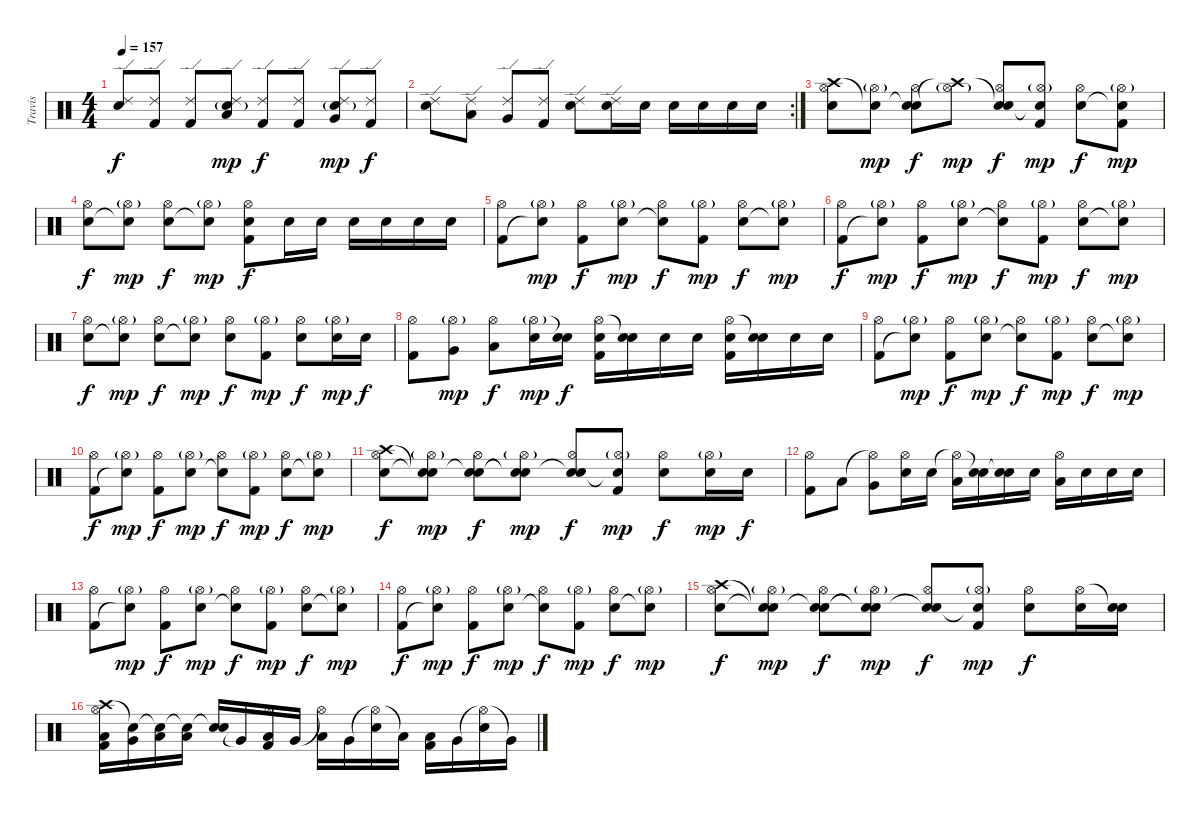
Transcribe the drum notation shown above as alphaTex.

\track ("Travis" "Travis") {instrument percussion}
\staff {score}
\articulation defaults
\ts (4 4)
\tempo 157
\clef neutral
\ks c
("Ride (edge) 2" "Electric Snare (hit)").8{dy f} ("Ride (edge) 2" "Kick (hit) 2").8 ("Ride (edge) 2" "Kick (hit) 2").8 ("Ride (edge) 2" "Electric Snare (hit)"{g} "Low Tom (hit)").8{dy mp} ("Ride (edge) 2" "Kick (hit) 2").8{dy f} ("Ride (edge) 2" "Kick (hit) 2").8 ("Ride (edge) 2" "Electric Snare (hit)"{g} "Very Low Tom (hit)").8{dy mp} ("Ride (edge) 2" "Kick (hit) 2").8{dy f} |
\rc 2
("Ride (edge) 2" "Electric Snare (hit)").8 ("Ride (edge) 2" "Low Tom (hit)").8 ("Ride (edge) 2" "Very Low Tom (hit)").8 ("Ride (edge) 2" "Kick (hit) 2").8 ("Ride (edge) 2" "Electric Snare (hit)").8 ("Ride (edge) 2" "Electric Snare (hit)").16 "Electric Snare (hit)".16 "Electric Snare (hit)".16 "Electric Snare (hit)".16 "Electric Snare (hit)".16 "Electric Snare (hit)".16 |
("Crash high (hit)" "Hi-Hat (open)" "Electric Snare (hit)").8 ("Snare (hit)"{t} "Hi-Hat (open)"{g}).8{dy mp} ("Snare (hit)"{t} "Hi-Hat (open)" "Electric Snare (hit)").8{dy f} ("Crash high (hit)"{t} "Hi-Hat (open)"{g}).8{dy mp} ("Snare (hit)"{t} "Hi-Hat (open)" "Electric Snare (hit)").8{dy f} ("Snare (hit)"{t} "Hi-Hat (open)"{g} "Kick (hit) 2").8{dy mp} ("Hi-Hat (open)" "Electric Snare (hit)").8{dy f} ("Hi-Hat (open)"{g} "Snare (hit)"{t} "Kick (hit) 2").8{dy mp} |
("Hi-Hat (open)" "Electric Snare (hit)").8{dy f} ("Hi-Hat (open)"{g} "Snare (hit)"{t}).8{dy mp} ("Hi-Hat (open)" "Electric Snare (hit)").8{dy f} ("Hi-Hat (open)"{g} "Snare (hit)"{t}).8{dy mp} ("Hi-Hat (open)" "Electric Snare (hit)" "Kick (hit) 2").8{dy f} "Electric Snare (hit)".16 "Electric Snare (hit)".16 "Electric Snare (hit)".16 "Electric Snare (hit)".16 "Electric Snare (hit)".16 "Electric Snare (hit)".16 |
("Hi-Hat (open)" "Kick (hit) 2").8 ("Hi-Hat (open)"{g} "Snare (hit)"{t}).8{dy mp} ("Hi-Hat (open)" "Kick (hit) 2").8{dy f} ("Hi-Hat (open)"{g} "Electric Snare (hit)").8{dy mp} ("Hi-Hat (open)" "Snare (hit)"{t}).8{dy f} ("Hi-Hat (open)"{g} "Kick (hit) 2").8{dy mp} ("Hi-Hat (open)" "Electric Snare (hit)").8{dy f} ("Hi-Hat (open)"{g} "Snare (hit)"{t}).8{dy mp} |
("Hi-Hat (open)" "Kick (hit) 2").8{dy f} ("Hi-Hat (open)"{g} "Snare (hit)"{t}).8{dy mp} ("Hi-Hat (open)" "Kick (hit) 2").8{dy f} ("Hi-Hat (open)"{g} "Electric Snare (hit)").8{dy mp} ("Hi-Hat (open)" "Snare (hit)"{t}).8{dy f} ("Hi-Hat (open)"{g} "Kick (hit) 2").8{dy mp} ("Hi-Hat (open)" "Electric Snare (hit)").8{dy f} ("Hi-Hat (open)"{g} "Snare (hit)"{t}).8{dy mp} |
("Hi-Hat (open)" "Electric Snare (hit)").8{dy f} ("Hi-Hat (open)"{g} "Snare (hit)"{t}).8{dy mp} ("Hi-Hat (open)" "Electric Snare (hit)").8{dy f} ("Hi-Hat (open)"{g} "Snare (hit)"{t}).8{dy mp} ("Hi-Hat (open)" "Electric Snare (hit)").8{dy f} ("Hi-Hat (open)"{g} "Kick (hit) 2").8{dy mp} ("Hi-Hat (open)" "Electric Snare (hit)").8{dy f} ("Hi-Hat (open)"{g} "Electric Snare (hit)").16{dy mp} "Electric Snare (hit)".16{dy f} |
("Hi-Hat (open)" "Kick (hit) 2").8 ("Hi-Hat (open)"{g} "Very Low Tom (hit)").8{dy mp} ("Hi-Hat (open)" "Low Tom (hit)").8{dy f} ("Hi-Hat (open)"{g} "Electric Snare (hit)").16{dy mp} ("Snare (hit)"{t} "Electric Snare (hit)").16{dy f} ("Hi-Hat (open)" "Electric Snare (hit)" "Kick (hit) 2").16 ("Snare (hit)"{t} "Electric Snare (hit)").16 "Electric Snare (hit)".16 "Electric Snare (hit)".16 ("Hi-Hat (open)" "Electric Snare (hit)" "Kick (hit) 2").16 ("Snare (hit)"{t} "Electric Snare (hit)").16 "Electric Snare (hit)".16 "Electric Snare (hit)".16 |
("Hi-Hat (open)" "Kick (hit) 2").8 ("Hi-Hat (open)"{g} "Snare (hit)"{t}).8{dy mp} ("Hi-Hat (open)" "Kick (hit) 2").8{dy f} ("Hi-Hat (open)"{g} "Electric Snare (hit)").8{dy mp} ("Hi-Hat (open)" "Snare (hit)"{t}).8{dy f} ("Hi-Hat (open)"{g} "Kick (hit) 2").8{dy mp} ("Hi-Hat (open)" "Electric Snare (hit)").8{dy f} ("Hi-Hat (open)"{g} "Snare (hit)"{t}).8{dy mp} |
("Hi-Hat (open)" "Kick (hit) 2").8{dy f} ("Hi-Hat (open)"{g} "Snare (hit)"{t}).8{dy mp} ("Hi-Hat (open)" "Kick (hit) 2").8{dy f} ("Hi-Hat (open)"{g} "Electric Snare (hit)").8{dy mp} ("Hi-Hat (open)" "Snare (hit)"{t}).8{dy f} ("Hi-Hat (open)"{g} "Kick (hit) 2").8{dy mp} ("Hi-Hat (open)" "Electric Snare (hit)").8{dy f} ("Hi-Hat (open)"{g} "Snare (hit)"{t}).8{dy mp} |
("Crash high (hit)" "Hi-Hat (open)" "Electric Snare (hit)").8{dy f} ("Snare (hit)"{t} "Hi-Hat (open)"{g} "Snare (hit)"{t}).8{dy mp} ("Snare (hit)"{t} "Hi-Hat (open)" "Electric Snare (hit)").8{dy f} ("Snare (hit)"{t} "Hi-Hat (open)"{g} "Snare (hit)"{t}).8{dy mp} ("Snare (hit)"{t} "Hi-Hat (open)" "Electric Snare (hit)").8{dy f} ("Snare (hit)"{t} "Hi-Hat (open)"{g} "Kick (hit) 2").8{dy mp} ("Hi-Hat (open)" "Electric Snare (hit)").8{dy f} ("Hi-Hat (open)"{g} "Electric Snare (hit)").16{dy mp} "Electric Snare (hit)".16{dy f} |
("Hi-Hat (open)" "Kick (hit) 2").8 "Low Tom (hit)".8 ("Hi-Hat (open)"{t} "Very Low Tom (hit)").8 ("Hi-Hat (open)" "Electric Snare (hit)").16 "Electric Snare (hit)".16 ("Hi-Hat (open)"{t} "Low Tom (hit)").16 ("Snare (hit)"{t} "Electric Snare (hit)").16 ("Snare (hit)"{t} "Electric Snare (hit)").16 "Electric Snare (hit)".16 ("Hi-Hat (open)" "Low Tom (hit)").16 "Electric Snare (hit)".16 "Electric Snare (hit)".16 "Electric Snare (hit)".16 |
("Hi-Hat (open)" "Kick (hit) 2").8 ("Hi-Hat (open)"{g} "Snare (hit)"{t}).8{dy mp} ("Hi-Hat (open)" "Kick (hit) 2").8{dy f} ("Hi-Hat (open)"{g} "Electric Snare (hit)").8{dy mp} ("Hi-Hat (open)" "Snare (hit)"{t}).8{dy f} ("Hi-Hat (open)"{g} "Kick (hit) 2").8{dy mp} ("Hi-Hat (open)" "Electric Snare (hit)").8{dy f} ("Hi-Hat (open)"{g} "Snare (hit)"{t}).8{dy mp} |
("Hi-Hat (open)" "Kick (hit) 2").8{dy f} ("Hi-Hat (open)"{g} "Snare (hit)"{t}).8{dy mp} ("Hi-Hat (open)" "Kick (hit) 2").8{dy f} ("Hi-Hat (open)"{g} "Electric Snare (hit)").8{dy mp} ("Hi-Hat (open)" "Snare (hit)"{t}).8{dy f} ("Hi-Hat (open)"{g} "Kick (hit) 2").8{dy mp} ("Hi-Hat (open)" "Electric Snare (hit)").8{dy f} ("Hi-Hat (open)"{g} "Snare (hit)"{t}).8{dy mp} |
("Crash high (hit)" "Hi-Hat (open)" "Electric Snare (hit)").8{dy f} ("Snare (hit)"{t} "Hi-Hat (open)"{g} "Snare (hit)"{t}).8{dy mp} ("Snare (hit)"{t} "Hi-Hat (open)" "Electric Snare (hit)").8{dy f} ("Snare (hit)"{t} "Hi-Hat (open)"{g} "Snare (hit)"{t}).8{dy mp} ("Snare (hit)"{t} "Hi-Hat (open)" "Electric Snare (hit)").8{dy f} ("Snare (hit)"{t} "Hi-Hat (open)"{g} "Kick (hit) 2").8{dy mp} ("Hi-Hat (open)" "Electric Snare (hit)").8{dy f} ("Hi-Hat (open)" "Electric Snare (hit)").16 ("Snare (hit)"{t} "Electric Snare (hit)").16 |
("Crash high (hit)" "Hi-Hat (open)" "Low Tom (hit)" "Kick (hit) 2").16 ("Snare (hit)"{t} "Very Low Tom (hit)").16 ("Snare (hit)"{t} "Low Floor Tom (hit)").16 ("Snare (hit)"{t} "Low Tom (hit)").16 ("Snare (hit)"{t} "Electric Snare (hit)").16 "Very Low Tom (hit)"{t}.16 ("Hi-Hat (open)" "Low Floor Tom (hit)" "Kick (hit) 2").16 "Very Low Tom (hit)".16 ("Hi-Hat (open)"{t} "Low Tom (hit)").16 "Very Low Tom (hit)".16 ("Hi-Hat (open)"{t} "Electric Snare (hit)").16 "Low Tom (hit)"{t}.16 ("Low Tom (hit)" "Kick (hit) 2").16 "Very Low Tom (hit)".16 ("Hi-Hat (open)"{t} "Electric Snare (hit)").16 "Very Low Tom (hit)"{t}.16
